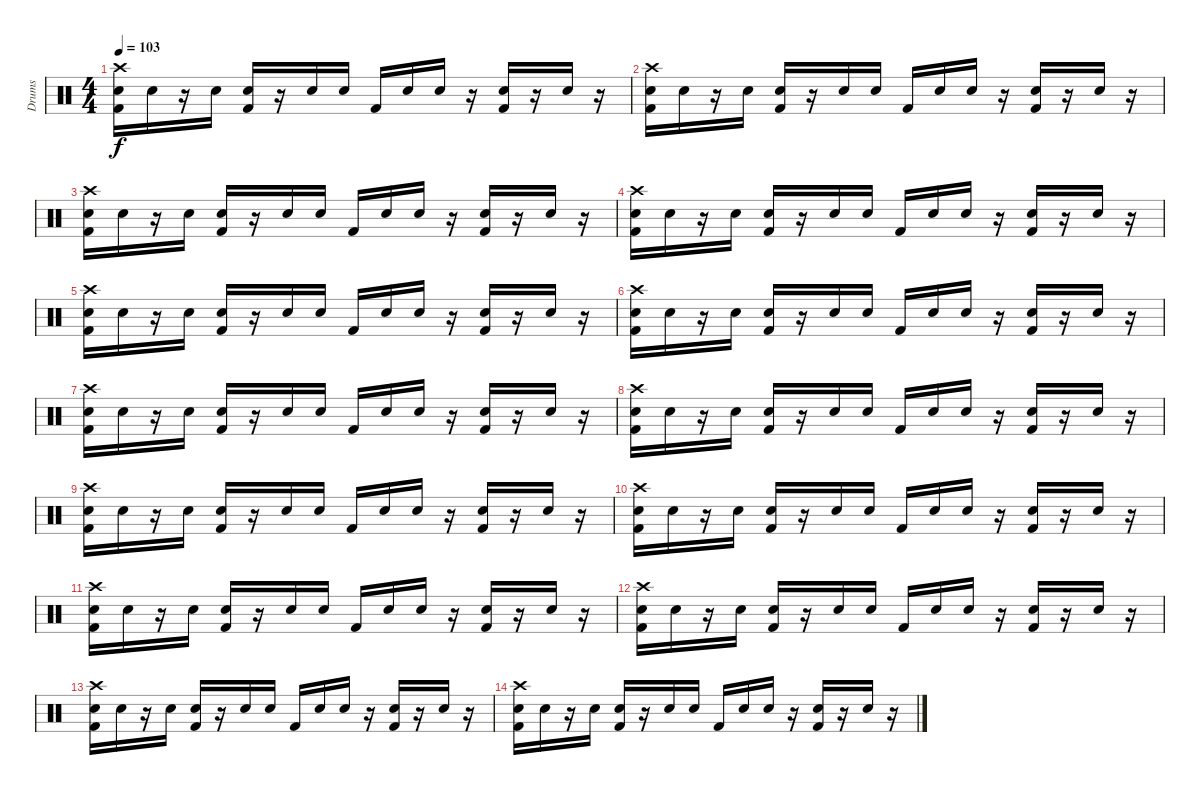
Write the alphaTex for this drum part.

\track ("Drums" "Drums") {instrument percussion}
\staff {score}
\articulation defaults
\ts (4 4)
\tempo 103
\clef neutral
\ks c
("Crash high (hit)" "Electric Snare (hit)" "Kick (hit) 2").16{dy f} "Electric Snare (hit)".16 r.16 "Electric Snare (hit)".16 ("Electric Snare (hit)" "Kick (hit) 2").16 r.16 "Electric Snare (hit)".16 "Electric Snare (hit)".16 "Kick (hit) 2".16 "Electric Snare (hit)".16 "Electric Snare (hit)".16 r.16 ("Electric Snare (hit)" "Kick (hit) 2").16 r.16 "Electric Snare (hit)".16 r.16 |
("Crash high (hit)" "Electric Snare (hit)" "Kick (hit) 2").16 "Electric Snare (hit)".16 r.16 "Electric Snare (hit)".16 ("Electric Snare (hit)" "Kick (hit) 2").16 r.16 "Electric Snare (hit)".16 "Electric Snare (hit)".16 "Kick (hit) 2".16 "Electric Snare (hit)".16 "Electric Snare (hit)".16 r.16 ("Electric Snare (hit)" "Kick (hit) 2").16 r.16 "Electric Snare (hit)".16 r.16 |
("Crash high (hit)" "Electric Snare (hit)" "Kick (hit) 2").16 "Electric Snare (hit)".16 r.16 "Electric Snare (hit)".16 ("Electric Snare (hit)" "Kick (hit) 2").16 r.16 "Electric Snare (hit)".16 "Electric Snare (hit)".16 "Kick (hit) 2".16 "Electric Snare (hit)".16 "Electric Snare (hit)".16 r.16 ("Electric Snare (hit)" "Kick (hit) 2").16 r.16 "Electric Snare (hit)".16 r.16 |
("Crash high (hit)" "Electric Snare (hit)" "Kick (hit) 2").16 "Electric Snare (hit)".16 r.16 "Electric Snare (hit)".16 ("Electric Snare (hit)" "Kick (hit) 2").16 r.16 "Electric Snare (hit)".16 "Electric Snare (hit)".16 "Kick (hit) 2".16 "Electric Snare (hit)".16 "Electric Snare (hit)".16 r.16 ("Electric Snare (hit)" "Kick (hit) 2").16 r.16 "Electric Snare (hit)".16 r.16 |
("Crash high (hit)" "Electric Snare (hit)" "Kick (hit) 2").16 "Electric Snare (hit)".16 r.16 "Electric Snare (hit)".16 ("Electric Snare (hit)" "Kick (hit) 2").16 r.16 "Electric Snare (hit)".16 "Electric Snare (hit)".16 "Kick (hit) 2".16 "Electric Snare (hit)".16 "Electric Snare (hit)".16 r.16 ("Electric Snare (hit)" "Kick (hit) 2").16 r.16 "Electric Snare (hit)".16 r.16 |
("Crash high (hit)" "Electric Snare (hit)" "Kick (hit) 2").16 "Electric Snare (hit)".16 r.16 "Electric Snare (hit)".16 ("Electric Snare (hit)" "Kick (hit) 2").16 r.16 "Electric Snare (hit)".16 "Electric Snare (hit)".16 "Kick (hit) 2".16 "Electric Snare (hit)".16 "Electric Snare (hit)".16 r.16 ("Electric Snare (hit)" "Kick (hit) 2").16 r.16 "Electric Snare (hit)".16 r.16 |
("Crash high (hit)" "Electric Snare (hit)" "Kick (hit) 2").16 "Electric Snare (hit)".16 r.16 "Electric Snare (hit)".16 ("Electric Snare (hit)" "Kick (hit) 2").16 r.16 "Electric Snare (hit)".16 "Electric Snare (hit)".16 "Kick (hit) 2".16 "Electric Snare (hit)".16 "Electric Snare (hit)".16 r.16 ("Electric Snare (hit)" "Kick (hit) 2").16 r.16 "Electric Snare (hit)".16 r.16 |
("Crash high (hit)" "Electric Snare (hit)" "Kick (hit) 2").16 "Electric Snare (hit)".16 r.16 "Electric Snare (hit)".16 ("Electric Snare (hit)" "Kick (hit) 2").16 r.16 "Electric Snare (hit)".16 "Electric Snare (hit)".16 "Kick (hit) 2".16 "Electric Snare (hit)".16 "Electric Snare (hit)".16 r.16 ("Electric Snare (hit)" "Kick (hit) 2").16 r.16 "Electric Snare (hit)".16 r.16 |
("Crash high (hit)" "Electric Snare (hit)" "Kick (hit) 2").16 "Electric Snare (hit)".16 r.16 "Electric Snare (hit)".16 ("Electric Snare (hit)" "Kick (hit) 2").16 r.16 "Electric Snare (hit)".16 "Electric Snare (hit)".16 "Kick (hit) 2".16 "Electric Snare (hit)".16 "Electric Snare (hit)".16 r.16 ("Electric Snare (hit)" "Kick (hit) 2").16 r.16 "Electric Snare (hit)".16 r.16 |
("Crash high (hit)" "Electric Snare (hit)" "Kick (hit) 2").16 "Electric Snare (hit)".16 r.16 "Electric Snare (hit)".16 ("Electric Snare (hit)" "Kick (hit) 2").16 r.16 "Electric Snare (hit)".16 "Electric Snare (hit)".16 "Kick (hit) 2".16 "Electric Snare (hit)".16 "Electric Snare (hit)".16 r.16 ("Electric Snare (hit)" "Kick (hit) 2").16 r.16 "Electric Snare (hit)".16 r.16 |
("Crash high (hit)" "Electric Snare (hit)" "Kick (hit) 2").16 "Electric Snare (hit)".16 r.16 "Electric Snare (hit)".16 ("Electric Snare (hit)" "Kick (hit) 2").16 r.16 "Electric Snare (hit)".16 "Electric Snare (hit)".16 "Kick (hit) 2".16 "Electric Snare (hit)".16 "Electric Snare (hit)".16 r.16 ("Electric Snare (hit)" "Kick (hit) 2").16 r.16 "Electric Snare (hit)".16 r.16 |
("Crash high (hit)" "Electric Snare (hit)" "Kick (hit) 2").16 "Electric Snare (hit)".16 r.16 "Electric Snare (hit)".16 ("Electric Snare (hit)" "Kick (hit) 2").16 r.16 "Electric Snare (hit)".16 "Electric Snare (hit)".16 "Kick (hit) 2".16 "Electric Snare (hit)".16 "Electric Snare (hit)".16 r.16 ("Electric Snare (hit)" "Kick (hit) 2").16 r.16 "Electric Snare (hit)".16 r.16 |
("Crash high (hit)" "Electric Snare (hit)" "Kick (hit) 2").16{volume 1} "Electric Snare (hit)".16 r.16 "Electric Snare (hit)".16 ("Electric Snare (hit)" "Kick (hit) 2").16 r.16 "Electric Snare (hit)".16 "Electric Snare (hit)".16 "Kick (hit) 2".16 "Electric Snare (hit)".16 "Electric Snare (hit)".16 r.16 ("Electric Snare (hit)" "Kick (hit) 2").16 r.16 "Electric Snare (hit)".16 r.16 |
("Crash high (hit)" "Electric Snare (hit)" "Kick (hit) 2").16 "Electric Snare (hit)".16 r.16 "Electric Snare (hit)".16 ("Electric Snare (hit)" "Kick (hit) 2").16 r.16 "Electric Snare (hit)".16 "Electric Snare (hit)".16 "Kick (hit) 2".16 "Electric Snare (hit)".16 "Electric Snare (hit)".16 r.16 ("Electric Snare (hit)" "Kick (hit) 2").16 r.16 "Electric Snare (hit)".16 r.16
